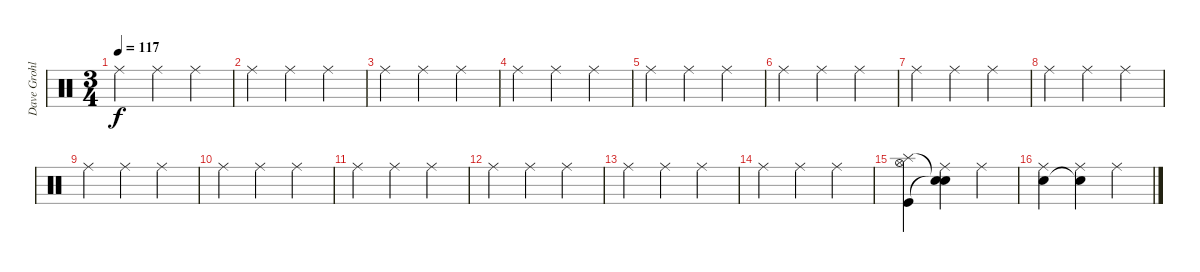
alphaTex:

\track ("Dave Grohl" "Dave Grohl") {instrument percussion}
\staff {score}
\articulation defaults
\ts (3 4)
\tempo 117
\clef neutral
\ks c "Ride (middle)".4{dy f} "Ride (middle)".4 "Ride (middle)".4
|
"Ride (middle)".4 "Ride (middle)".4 "Ride (middle)".4 |
"Ride (middle)".4 "Ride (middle)".4 "Ride (middle)".4 |
"Ride (middle)".4 "Ride (middle)".4 "Ride (middle)".4 |
"Ride (middle)".4 "Ride (middle)".4 "Ride (middle)".4 |
"Ride (middle)".4 "Ride (middle)".4 "Ride (middle)".4 |
"Ride (middle)".4 "Ride (middle)".4 "Ride (middle)".4 |
"Ride (middle)".4 "Ride (middle)".4 "Ride (middle)".4 |
"Ride (middle)".4 "Ride (middle)".4 "Ride (middle)".4 |
"Ride (middle)".4 "Ride (middle)".4 "Ride (middle)".4 |
"Ride (middle)".4 "Ride (middle)".4 "Ride (middle)".4 |
"Ride (middle)".4 "Ride (middle)".4 "Ride (middle)".4 |
"Ride (middle)".4 "Ride (middle)".4 "Ride (middle)".4 |
"Ride (middle)".4 "Ride (middle)".4 "Ride (middle)".4 |
("Splash (hit)" "Kick (hit)" "Hi-Hat (open)").4{volume 8} ("Snare (hit)"{t} "Snare (hit)"{t} "Ride (middle)").4 "Ride (middle)".4 |
("Electric Snare (hit)" "Ride (middle)").4 ("Snare (hit)"{t} "Ride (middle)").4 "Ride (middle)".4
